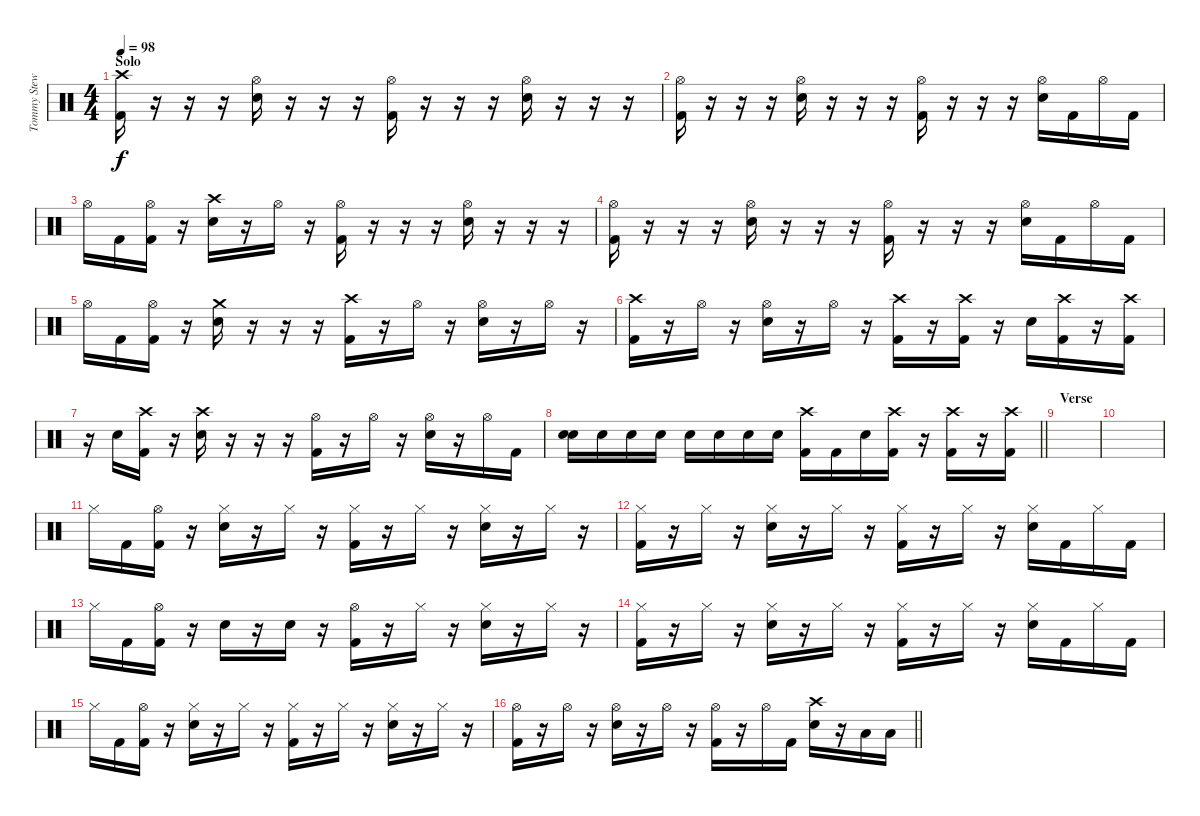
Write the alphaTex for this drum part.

\track ("Tommy Stewart - Drums" "Tommy Stew") {instrument percussion}
\staff {score}
\articulation defaults
\ts (4 4)
\section ("" "Solo")
\tempo 98
\clef neutral
\ks c
("Crash high (hit)" "Kick (hit) 2").16{dy f} r.16 r.16 r.16 ("Hi-Hat (open)" "Snare (hit) 2").16 r.16 r.16 r.16 ("Hi-Hat (open)" "Kick (hit) 2").16 r.16 r.16 r.16 ("Hi-Hat (open)" "Snare (hit) 2").16 r.16 r.16 r.16 |
("Hi-Hat (open)" "Kick (hit) 2").16 r.16 r.16 r.16 ("Hi-Hat (open)" "Snare (hit) 2").16 r.16 r.16 r.16 ("Hi-Hat (open)" "Kick (hit) 2").16 r.16 r.16 r.16 ("Hi-Hat (open)" "Snare (hit) 2").16 "Kick (hit) 2".16 "Hi-Hat (open)".16 "Kick (hit) 2".16 |
"Hi-Hat (open)".16 "Kick (hit) 2".16 ("Hi-Hat (open)" "Kick (hit) 2").16 r.16 ("Crash high (hit)" "Snare (hit) 2").16 r.16 "Hi-Hat (open)".16 r.16 ("Hi-Hat (open)" "Kick (hit) 2").16 r.16 r.16 r.16 ("Hi-Hat (open)" "Snare (hit) 2").16 r.16 r.16 r.16 |
("Hi-Hat (open)" "Kick (hit) 2").16 r.16 r.16 r.16 ("Hi-Hat (open)" "Snare (hit) 2").16 r.16 r.16 r.16 ("Hi-Hat (open)" "Kick (hit) 2").16 r.16 r.16 r.16 ("Hi-Hat (open)" "Snare (hit) 2").16 "Kick (hit) 2".16 "Hi-Hat (open)".16 "Kick (hit) 2".16 |
"Hi-Hat (open)".16 "Kick (hit) 2".16 ("Hi-Hat (open)" "Kick (hit) 2").16 r.16 ("Crash medium (hit)" "Snare (hit) 2").16 r.16 r.16 r.16 ("Crash high (hit)" "Kick (hit) 2").16 r.16 "Hi-Hat (open)".16 r.16 ("Hi-Hat (open)" "Snare (hit) 2").16 r.16 "Hi-Hat (open)".16 r.16 |
("Crash high (hit)" "Kick (hit) 2").16 r.16 "Hi-Hat (open)".16 r.16 ("Hi-Hat (open)" "Snare (hit) 2").16 r.16 "Hi-Hat (open)".16 r.16 ("Crash high (hit)" "Kick (hit) 2").16 r.16 ("Crash high (hit)" "Kick (hit) 2").16 r.16 "Snare (hit) 2".16 ("Crash high (hit)" "Kick (hit) 2").16 r.16 ("Crash high (hit)" "Kick (hit) 2").16 |
r.16 "Snare (hit) 2".16 ("Crash high (hit)" "Kick (hit) 2").16 r.16 ("Crash high (hit)" "Snare (hit) 2").16 r.16 r.16 r.16 ("Hi-Hat (open)" "Kick (hit) 2").16 r.16 "Hi-Hat (open)".16 r.16 ("Hi-Hat (open)" "Snare (hit) 2").16 r.16 "Hi-Hat (open)".16 "Kick (hit) 2".16 |
\barLineRight lightlight
("Snare (hit) 2" "Snare (hit) 2").16 "Snare (hit) 2".16 "Snare (hit) 2".16 "Snare (hit) 2".16 "Snare (hit) 2".16 "Snare (hit) 2".16 "Snare (hit) 2".16 "Snare (hit) 2".16 ("Crash high (hit)" "Kick (hit) 2").16 "Kick (hit) 2".16 "Snare (hit) 2".16 ("Crash high (hit)" "Kick (hit) 2").16 r.16 ("Crash high (hit)" "Kick (hit) 2").16 r.16 ("Crash high (hit)" "Kick (hit) 2").16 |
\section ("" "Verse")
|
|
"Hi-Hat (closed)".16 "Kick (hit) 2".16 ("Hi-Hat (open)" "Kick (hit) 2").16 r.16 ("Hi-Hat (closed)" "Snare (hit) 2").16 r.16 "Hi-Hat (closed)".16 r.16 ("Hi-Hat (closed)" "Kick (hit) 2").16 r.16 "Hi-Hat (closed)".16 r.16 ("Hi-Hat (closed)" "Snare (hit) 2").16 r.16 "Hi-Hat (closed)".16 r.16 |
("Hi-Hat (closed)" "Kick (hit) 2").16 r.16 "Hi-Hat (closed)".16 r.16 ("Hi-Hat (closed)" "Snare (hit) 2").16 r.16 "Hi-Hat (closed)".16 r.16 ("Hi-Hat (closed)" "Kick (hit) 2").16 r.16 "Hi-Hat (closed)".16 r.16 ("Hi-Hat (closed)" "Snare (hit) 2").16 "Kick (hit) 2".16 "Hi-Hat (closed)".16 "Kick (hit) 2".16 |
"Hi-Hat (closed)".16 "Kick (hit) 2".16 ("Hi-Hat (open)" "Kick (hit) 2").16 r.16 "Snare (hit) 2".16 r.16 "Snare (hit) 2".16 r.16 ("Hi-Hat (open)" "Kick (hit) 2").16 r.16 "Hi-Hat (closed)".16 r.16 ("Hi-Hat (closed)" "Snare (hit) 2").16 r.16 "Hi-Hat (closed)".16 r.16 |
("Hi-Hat (closed)" "Kick (hit) 2").16 r.16 "Hi-Hat (closed)".16 r.16 ("Hi-Hat (closed)" "Snare (hit) 2").16 r.16 "Hi-Hat (closed)".16 r.16 ("Hi-Hat (closed)" "Kick (hit) 2").16 r.16 "Hi-Hat (closed)".16 r.16 ("Hi-Hat (closed)" "Snare (hit) 2").16 "Kick (hit) 2".16 "Hi-Hat (closed)".16 "Kick (hit) 2".16 |
"Hi-Hat (closed)".16 "Kick (hit) 2".16 ("Hi-Hat (open)" "Kick (hit) 2").16 r.16 ("Hi-Hat (closed)" "Snare (hit) 2").16 r.16 "Hi-Hat (closed)".16 r.16 ("Hi-Hat (closed)" "Kick (hit) 2").16 r.16 "Hi-Hat (closed)".16 r.16 ("Hi-Hat (closed)" "Snare (hit) 2").16 r.16 "Hi-Hat (closed)".16 r.16 |
\barLineRight lightlight
("Hi-Hat (open)" "Kick (hit) 2").16 r.16 "Hi-Hat (open)".16 r.16 ("Hi-Hat (open)" "Snare (hit) 2").16 r.16 "Hi-Hat (open)".16 r.16 ("Hi-Hat (open)" "Kick (hit) 2").16 r.16 "Hi-Hat (open)".16 "Kick (hit) 2".16 ("Crash high (hit)" "Snare (hit) 2").16 r.16 "Low Tom (hit)".16 "Low Tom (hit)".16
